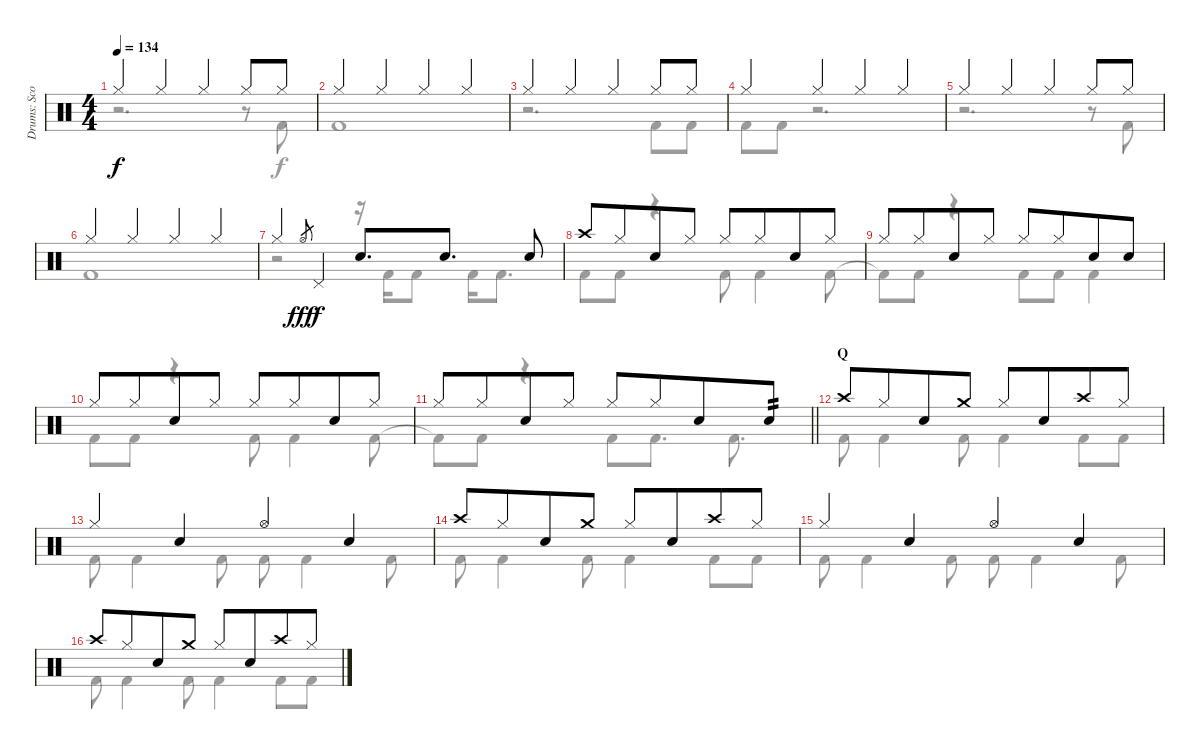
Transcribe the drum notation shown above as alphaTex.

\track ("Drums: Scott" "Drums: Sco") {instrument percussion}
\staff {score}
\articulation defaults
\voice
\ts (4 4)
\tempo 134
\clef neutral
\ks c "Hi-Hat (closed)".4{dy f} "Hi-Hat (closed)".4 "Hi-Hat (closed)".4 "Hi-Hat (closed)".8 "Hi-Hat (closed)".8
|
"Hi-Hat (closed)".4 "Hi-Hat (closed)".4 "Hi-Hat (closed)".4 "Hi-Hat (closed)".4 |
"Hi-Hat (closed)".4 "Hi-Hat (closed)".4 "Hi-Hat (closed)".4 "Hi-Hat (closed)".8 "Hi-Hat (closed)".8 |
"Hi-Hat (closed)".4 "Hi-Hat (closed)".4 "Hi-Hat (closed)".4 "Hi-Hat (closed)".4 |
"Hi-Hat (closed)".4 "Hi-Hat (closed)".4 "Hi-Hat (closed)".4 "Hi-Hat (closed)".8 "Hi-Hat (closed)".8 |
"Hi-Hat (closed)".4 "Hi-Hat (closed)".4 "Hi-Hat (closed)".4 "Hi-Hat (closed)".4 |
"Hi-Hat (closed)".4 "Hi-Hat (open)".8{gr dy fff} "Pedal Hi-Hat (hit)".4{dy f} "Snare (hit) 2".8{d} "Snare (hit) 2".8{d} "Snare (hit) 2".8 |
"Crash high (hit)".8 "Hi-Hat (closed)".8{beam merge} "Snare (hit) 2".8 "Hi-Hat (closed)".8 "Hi-Hat (closed)".8 "Hi-Hat (closed)".8{beam merge} "Snare (hit) 2".8 "Hi-Hat (closed)".8 |
"Hi-Hat (closed)".8 "Hi-Hat (closed)".8{beam merge} "Snare (hit) 2".8 "Hi-Hat (closed)".8 "Hi-Hat (closed)".8 "Hi-Hat (closed)".8{beam merge} "Snare (hit) 2".8 "Snare (hit) 2".8 |
"Hi-Hat (closed)".8 "Hi-Hat (closed)".8{beam merge} "Snare (hit) 2".8 "Hi-Hat (closed)".8 "Hi-Hat (closed)".8 "Hi-Hat (closed)".8{beam merge} "Snare (hit) 2".8 "Hi-Hat (closed)".8 |
\barLineRight lightlight "Hi-Hat (closed)".8 "Hi-Hat (closed)".8{beam merge} "Snare (hit) 2".8 "Hi-Hat (closed)".8 "Hi-Hat (closed)".8 "Hi-Hat (closed)".8{beam merge} "Snare (hit) 2".8 "Snare (hit) 2".8{tp 2}
|
\section ("" "Q")
"Crash high (hit)".8 "Hi-Hat (closed)".8{beam merge} "Snare (hit) 2".8 "Crash medium (hit)".8 "Hi-Hat (closed)".8 "Snare (hit) 2".8{beam merge} "Crash high (hit)".8 "Hi-Hat (closed)".8 |
"Hi-Hat (closed)".4 "Snare (hit) 2".4 "Hi-Hat (open)".4 "Snare (hit) 2".4 |
"Crash high (hit)".8 "Hi-Hat (closed)".8{beam merge} "Snare (hit) 2".8 "Crash medium (hit)".8 "Hi-Hat (closed)".8 "Snare (hit) 2".8{beam merge} "Crash high (hit)".8 "Hi-Hat (closed)".8 |
"Hi-Hat (closed)".4 "Snare (hit) 2".4 "Hi-Hat (open)".4 "Snare (hit) 2".4 |
"Crash high (hit)".8 "Hi-Hat (closed)".8{beam merge} "Snare (hit) 2".8 "Crash medium (hit)".8 "Hi-Hat (closed)".8 "Snare (hit) 2".8{beam merge} "Crash high (hit)".8 "Hi-Hat (closed)".8
\voice
\clef neutral
\ottava regular
\simile none
\ks c
r.2{d dy f} r.8 "Kick (hit) 2".8 |
"Kick (hit) 2".1 |
r.2{d} "Kick (hit) 2".8 "Kick (hit) 2".8 |
"Kick (hit) 2".8 "Kick (hit) 2".8 r.2{d} |
r.2{d} r.8 "Kick (hit) 2".8 |
"Kick (hit) 2".1 |
r.2 r.16 "Kick (hit) 2".16 "Kick (hit) 2".8 "Kick (hit) 2".16 "Kick (hit) 2".8{d} |
"Kick (hit) 2".8 "Kick (hit) 2".8 r.4 "Kick (hit) 2".8 "Kick (hit) 2".4 "Kick (hit) 2".8 |
"Kick (hit) 2"{t}.8 "Kick (hit) 2".8 r.4 "Kick (hit) 2".8 "Kick (hit) 2".8 "Kick (hit) 2".4 |
"Kick (hit) 2".8 "Kick (hit) 2".8 r.4 "Kick (hit) 2".8 "Kick (hit) 2".4 "Kick (hit) 2".8 |
\barLineRight lightlight "Kick (hit) 2"{t}.8 "Kick (hit) 2".8
r.4 "Kick (hit) 2".8 "Kick (hit) 2".8{d} "Kick (hit) 2".8{d} |
"Kick (hit) 2".8 "Kick (hit) 2".4 "Kick (hit) 2".8 "Kick (hit) 2".4 "Kick (hit) 2".8 "Kick (hit) 2".8 |
"Kick (hit) 2".8 "Kick (hit) 2".4 "Kick (hit) 2".8 "Kick (hit) 2".8 "Kick (hit) 2".4 "Kick (hit) 2".8 |
"Kick (hit) 2".8 "Kick (hit) 2".4 "Kick (hit) 2".8 "Kick (hit) 2".4 "Kick (hit) 2".8 "Kick (hit) 2".8 |
"Kick (hit) 2".8 "Kick (hit) 2".4 "Kick (hit) 2".8 "Kick (hit) 2".8 "Kick (hit) 2".4 "Kick (hit) 2".8 |
"Kick (hit) 2".8 "Kick (hit) 2".4 "Kick (hit) 2".8 "Kick (hit) 2".4 "Kick (hit) 2".8 "Kick (hit) 2".8
